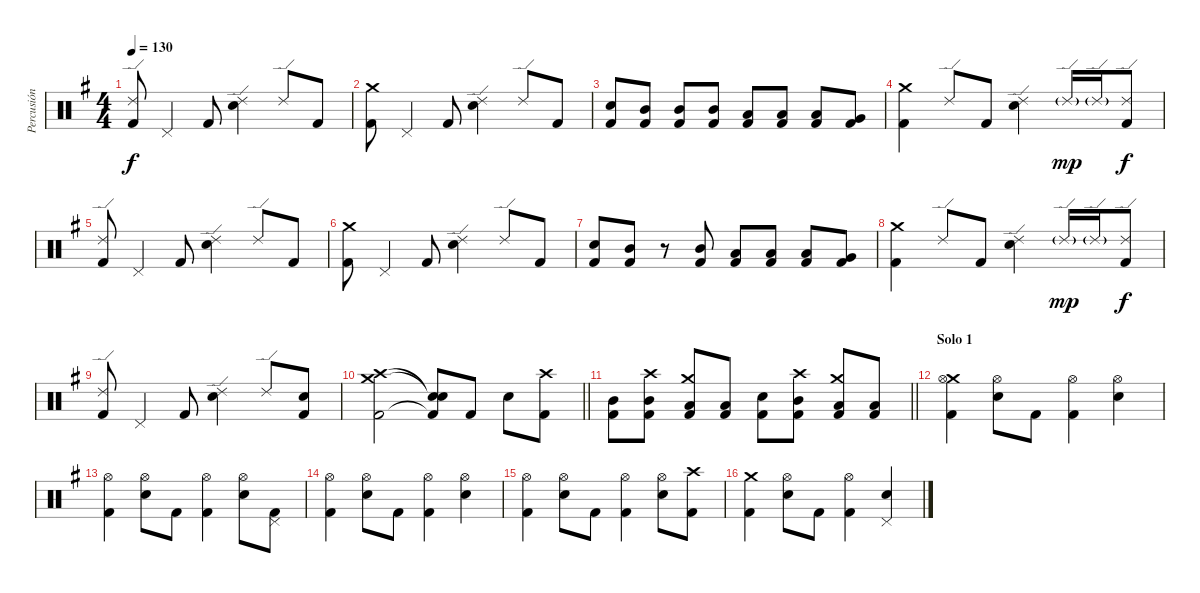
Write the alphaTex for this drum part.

\track ("Percusión" "Percusión") {instrument percussion}
\staff {score}
\articulation defaults
\ts (4 4)
\tempo 130
\clef neutral
\ks g
("Ride (edge) 2" "Kick (hit) 2").8{dy f} "Pedal Hi-Hat (hit)".4 "Kick (hit) 2".8 ("Ride (edge) 2" "Electric Snare (hit)").4 "Ride (edge) 2".8 "Kick (hit) 2".8 |
("Crash medium (hit)" "Kick (hit) 2").8 "Pedal Hi-Hat (hit)".4 "Kick (hit) 2".8 ("Ride (edge) 2" "Electric Snare (hit)").4 "Ride (edge) 2".8 "Kick (hit) 2".8 |
("Electric Snare (hit)" "Kick (hit) 2").8 ("Mid Tom (hit)" "Kick (hit) 2").8 ("Mid Tom (hit)" "Kick (hit) 2").8 ("Mid Tom (hit)" "Kick (hit) 2").8 ("Low Tom (hit)" "Kick (hit) 2").8 ("Low Tom (hit)" "Kick (hit) 2").8 ("Low Tom (hit)" "Kick (hit) 2").8 ("Very Low Tom (hit)" "Kick (hit) 2").8 |
("Crash medium (hit)" "Kick (hit) 2").4 "Ride (edge) 2".8 "Kick (hit) 2".8 ("Ride (edge) 2" "Electric Snare (hit)").4 "Ride (edge) 2"{g}.16{dy mp} "Ride (edge) 2"{g}.16 ("Ride (edge) 2" "Kick (hit) 2").8{dy f} |
("Ride (edge) 2" "Kick (hit) 2").8 "Pedal Hi-Hat (hit)".4 "Kick (hit) 2".8 ("Ride (edge) 2" "Electric Snare (hit)").4 "Ride (edge) 2".8 "Kick (hit) 2".8 |
("Crash medium (hit)" "Kick (hit) 2").8 "Pedal Hi-Hat (hit)".4 "Kick (hit) 2".8 ("Ride (edge) 2" "Electric Snare (hit)").4 "Ride (edge) 2".8 "Kick (hit) 2".8 |
("Electric Snare (hit)" "Kick (hit) 2").8 ("Mid Tom (hit)" "Kick (hit) 2").8 r.8 ("Mid Tom (hit)" "Kick (hit) 2").8 ("Low Tom (hit)" "Kick (hit) 2").8 ("Low Tom (hit)" "Kick (hit) 2").8 ("Low Tom (hit)" "Kick (hit) 2").8 ("Very Low Tom (hit)" "Kick (hit) 2").8 |
("Crash medium (hit)" "Kick (hit) 2").4 "Ride (edge) 2".8 "Kick (hit) 2".8 ("Ride (edge) 2" "Electric Snare (hit)").4 "Ride (edge) 2"{g}.16{dy mp} "Ride (edge) 2"{g}.16 ("Ride (edge) 2" "Kick (hit) 2").8{dy f} |
("Ride (edge) 2" "Kick (hit) 2").8 "Pedal Hi-Hat (hit)".4 "Kick (hit) 2".8 ("Ride (edge) 2" "Electric Snare (hit)").4 "Ride (edge) 2".8 ("Electric Snare (hit)" "Kick (hit) 2").8 |
\barLineRight lightlight
("Crash medium (hit)" "Crash high (hit)" "Kick (hit) 2").2 ("Snare (hit)"{t} "Snare (hit)"{t} "Kick (hit) 2"{t}).8 "Kick (hit) 2".8 "Electric Snare (hit)".8 ("Crash high (hit)" "Kick (hit) 2").8 |
\barLineRight lightlight
("Mid Tom (hit)" "Kick (hit) 2").8 ("Crash high (hit)" "Mid Tom (hit)" "Kick (hit) 2").8 ("Crash medium (hit)" "Low Tom (hit)" "Kick (hit) 2").8 ("Low Tom (hit)" "Kick (hit) 2").8 ("Electric Snare (hit)" "Kick (hit) 2").8 ("Crash high (hit)" "Mid Tom (hit)" "Kick (hit) 2").8 ("Crash medium (hit)" "Low Tom (hit)" "Kick (hit) 2").8 ("Low Tom (hit)" "Kick (hit) 2").8 |
\section ("" "Solo 1")
("Crash medium (hit)" "Hi-Hat (open)" "Kick (hit) 2").4 ("Hi-Hat (open)" "Electric Snare (hit)").8 "Kick (hit) 2".8 ("Hi-Hat (open)" "Kick (hit) 2").4 ("Hi-Hat (open)" "Electric Snare (hit)").4 |
("Hi-Hat (open)" "Kick (hit) 2").4 ("Hi-Hat (open)" "Electric Snare (hit)").8 "Kick (hit) 2".8 ("Hi-Hat (open)" "Kick (hit) 2").4 ("Hi-Hat (open)" "Electric Snare (hit)").8 ("Pedal Hi-Hat (hit)" "Kick (hit) 2").8 |
("Hi-Hat (open)" "Kick (hit) 2").4 ("Hi-Hat (open)" "Electric Snare (hit)").8 "Kick (hit) 2".8 ("Hi-Hat (open)" "Kick (hit) 2").4 ("Hi-Hat (open)" "Electric Snare (hit)").4 |
("Hi-Hat (open)" "Kick (hit) 2").4 ("Hi-Hat (open)" "Electric Snare (hit)").8 "Kick (hit) 2".8 ("Hi-Hat (open)" "Kick (hit) 2").4 ("Hi-Hat (open)" "Electric Snare (hit)").8 ("Crash high (hit)" "Kick (hit) 2").8 |
("Crash medium (hit)" "Kick (hit) 2").4 ("Hi-Hat (open)" "Electric Snare (hit)").8 "Kick (hit) 2".8 ("Hi-Hat (open)" "Kick (hit) 2").4 ("Pedal Hi-Hat (hit)" "Electric Snare (hit)").4
